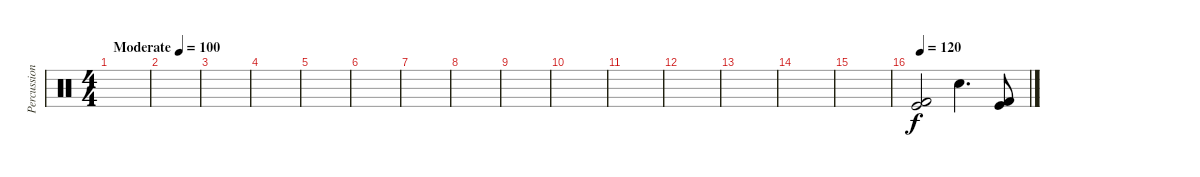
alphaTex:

\track ("Percussion" "Percussion") {instrument percussion}
\staff {score}
\articulation defaults
\ts (4 4)
\tempo (100 "Moderate")
\clef neutral
\ks c
|
|
|
|
|
|
|
|
|
|
|
|
|
|
|
\tempo 120
("Kick (hit) 2" "Kick (hit)").2 "Electric Snare (hit)".4{d} ("Kick (hit) 2" "Kick (hit)").8
